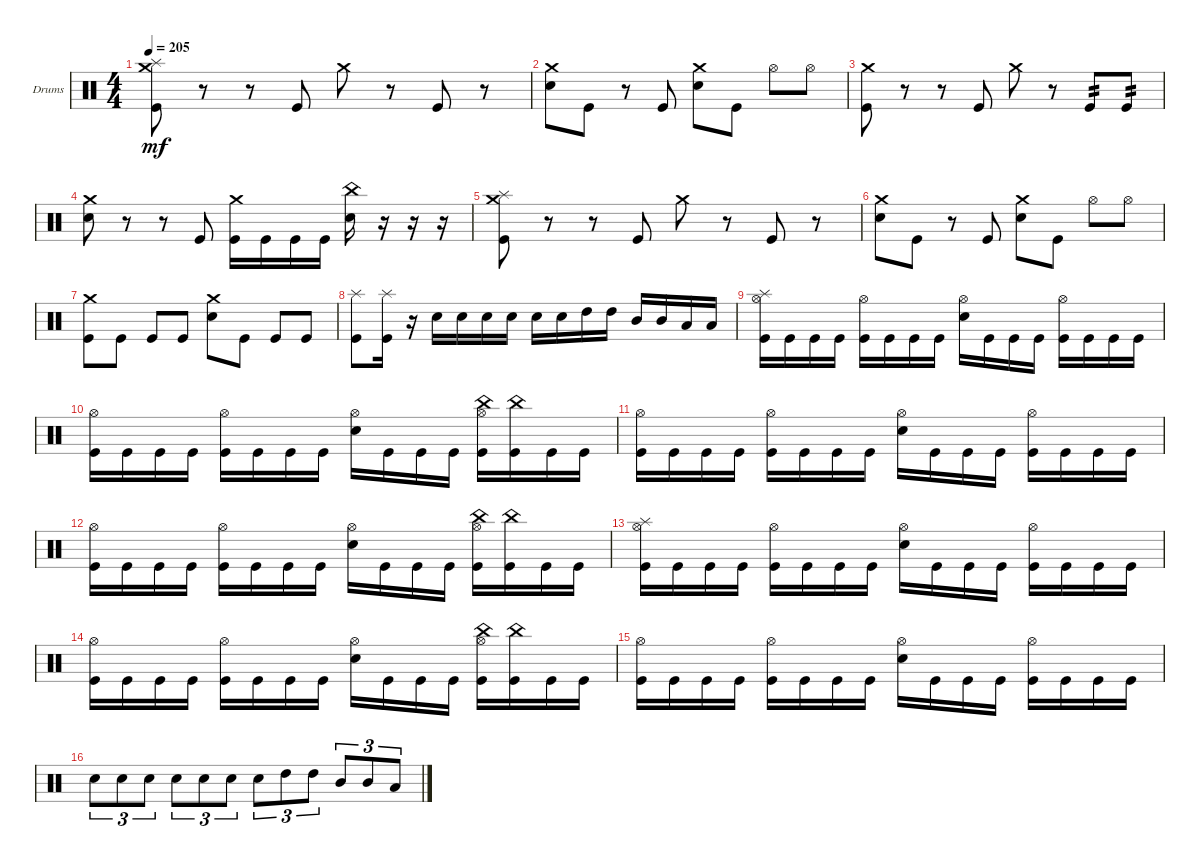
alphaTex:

\defaultSystemsLayout 4
\bracketExtendMode groupsimilarinstruments
\firstSystemTrackNameOrientation horizontal
\otherSystemsTrackNameOrientation horizontal
\track ("Drumkit" "Drums") {instrument percussion}
\staff {score}
\articulation defaults
\ts (4 4)
\tempo 205
\clef neutral
\ks c
("Kick (hit)" "Crash medium (hit)" "Splash (hit)").8{dy mf} r.8 r.8 "Kick (hit)".8 "Crash medium (hit)".8 r.8 "Kick (hit)".8 r.8 |
("Snare (hit) 2" "Crash medium (hit)").8 "Kick (hit)".8 r.8 "Kick (hit)".8 ("Snare (hit) 2" "Crash medium (hit)").8 "Kick (hit)".8 "Hi-Hat (open)".8 "Hi-Hat (open)".8 |
("Kick (hit)" "Crash medium (hit)").8 r.8 r.8 "Kick (hit)".8 "Crash medium (hit)".8 r.8 "Kick (hit)".8{tp 2} "Kick (hit)".8{tp 2} |
("Snare (hit) 2" "Crash medium (hit)").8 r.8 r.8 "Kick (hit)".8 ("Kick (hit)" "Crash medium (hit)").16 "Kick (hit)".16 "Kick (hit)".16 "Kick (hit)".16 ("Snare (hit) 2" "China (hit)").16 r.16 r.16 r.16 |
("Kick (hit)" "Crash medium (hit)" "Splash (hit)").8 r.8 r.8 "Kick (hit)".8 "Crash medium (hit)".8 r.8 "Kick (hit)".8 r.8 |
("Snare (hit) 2" "Crash medium (hit)").8 "Kick (hit)".8 r.8 "Kick (hit)".8 ("Snare (hit) 2" "Crash medium (hit)").8 "Kick (hit)".8 "Hi-Hat (open)".8 "Hi-Hat (open)".8 |
("Kick (hit)" "Crash medium (hit)").8 "Kick (hit)".8 "Kick (hit)".8 "Kick (hit)".8 ("Snare (hit) 2" "Crash medium (hit)").8 "Kick (hit)".8 "Kick (hit)".8 "Kick (hit)".8 |
("Kick (hit)" "Splash (hit)").8 ("Kick (hit)" "Splash (hit)").16 r.16 "Snare (hit) 2".16 "Snare (hit) 2".16 "Snare (hit) 2".16 "Snare (hit) 2".16 "Snare (hit) 2".16 "Snare (hit) 2".16 "High Tom (hit)".16 "High Tom (hit)".16 "Mid Tom (hit)".16 "Mid Tom (hit)".16 "Low Tom (hit)".16 "Low Tom (hit)".16 |
("Kick (hit)" "Hi-Hat (open)" "Splash (hit)").16 "Kick (hit)".16 "Kick (hit)".16 "Kick (hit)".16 ("Kick (hit)" "Hi-Hat (open)").16 "Kick (hit)".16 "Kick (hit)".16 "Kick (hit)".16 ("Snare (hit) 2" "Hi-Hat (open)").16 "Kick (hit)".16 "Kick (hit)".16 "Kick (hit)".16 ("Kick (hit)" "Hi-Hat (open)").16 "Kick (hit)".16 "Kick (hit)".16 "Kick (hit)".16 |
("Kick (hit)" "Hi-Hat (open)").16 "Kick (hit)".16 "Kick (hit)".16 "Kick (hit)".16 ("Kick (hit)" "Hi-Hat (open)").16 "Kick (hit)".16 "Kick (hit)".16 "Kick (hit)".16 ("Snare (hit) 2" "Hi-Hat (open)").16 "Kick (hit)".16 "Kick (hit)".16 "Kick (hit)".16 ("Kick (hit)" "Hi-Hat (open)" "China (hit)").16 ("Kick (hit)" "China (hit)").16 "Kick (hit)".16 "Kick (hit)".16 |
("Kick (hit)" "Hi-Hat (open)").16 "Kick (hit)".16 "Kick (hit)".16 "Kick (hit)".16 ("Kick (hit)" "Hi-Hat (open)").16 "Kick (hit)".16 "Kick (hit)".16 "Kick (hit)".16 ("Snare (hit) 2" "Hi-Hat (open)").16 "Kick (hit)".16 "Kick (hit)".16 "Kick (hit)".16 ("Kick (hit)" "Hi-Hat (open)").16 "Kick (hit)".16 "Kick (hit)".16 "Kick (hit)".16 |
("Kick (hit)" "Hi-Hat (open)").16 "Kick (hit)".16 "Kick (hit)".16 "Kick (hit)".16 ("Kick (hit)" "Hi-Hat (open)").16 "Kick (hit)".16 "Kick (hit)".16 "Kick (hit)".16 ("Snare (hit) 2" "Hi-Hat (open)").16 "Kick (hit)".16 "Kick (hit)".16 "Kick (hit)".16 ("Kick (hit)" "Hi-Hat (open)" "China (hit)").16 ("Kick (hit)" "China (hit)").16 "Kick (hit)".16 "Kick (hit)".16 |
("Kick (hit)" "Hi-Hat (open)" "Splash (hit)").16 "Kick (hit)".16 "Kick (hit)".16 "Kick (hit)".16 ("Kick (hit)" "Hi-Hat (open)").16 "Kick (hit)".16 "Kick (hit)".16 "Kick (hit)".16 ("Snare (hit) 2" "Hi-Hat (open)").16 "Kick (hit)".16 "Kick (hit)".16 "Kick (hit)".16 ("Kick (hit)" "Hi-Hat (open)").16 "Kick (hit)".16 "Kick (hit)".16 "Kick (hit)".16 |
("Kick (hit)" "Hi-Hat (open)").16 "Kick (hit)".16 "Kick (hit)".16 "Kick (hit)".16 ("Kick (hit)" "Hi-Hat (open)").16 "Kick (hit)".16 "Kick (hit)".16 "Kick (hit)".16 ("Snare (hit) 2" "Hi-Hat (open)").16 "Kick (hit)".16 "Kick (hit)".16 "Kick (hit)".16 ("Kick (hit)" "Hi-Hat (open)" "China (hit)").16 ("Kick (hit)" "China (hit)").16 "Kick (hit)".16 "Kick (hit)".16 |
("Kick (hit)" "Hi-Hat (open)").16 "Kick (hit)".16 "Kick (hit)".16 "Kick (hit)".16 ("Kick (hit)" "Hi-Hat (open)").16 "Kick (hit)".16 "Kick (hit)".16 "Kick (hit)".16 ("Snare (hit) 2" "Hi-Hat (open)").16 "Kick (hit)".16 "Kick (hit)".16 "Kick (hit)".16 ("Kick (hit)" "Hi-Hat (open)").16 "Kick (hit)".16 "Kick (hit)".16 "Kick (hit)".16 |
"Snare (hit) 2".8{tu (3 2)} "Snare (hit) 2".8{tu (3 2)} "Snare (hit) 2".8{tu (3 2)} "Snare (hit) 2".8{tu (3 2)} "Snare (hit) 2".8{tu (3 2)} "Snare (hit) 2".8{tu (3 2)} "Snare (hit) 2".8{tu (3 2)} "High Tom (hit)".8{tu (3 2)} "High Tom (hit)".8{tu (3 2)} "Mid Tom (hit)".8{tu (3 2)} "Mid Tom (hit)".8{tu (3 2)} "Low Tom (hit)".8{tu (3 2)}
